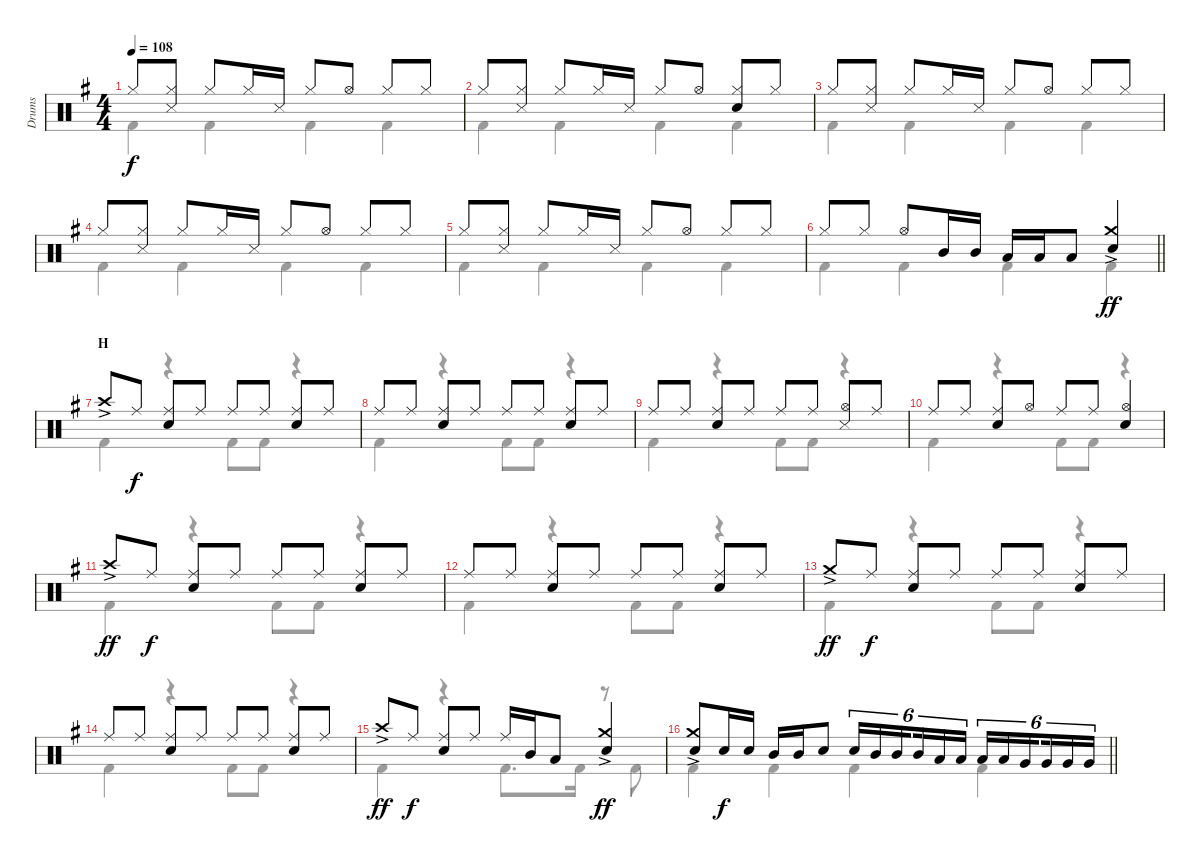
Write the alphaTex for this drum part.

\track ("Drums" "Drums") {instrument percussion}
\staff {score}
\articulation defaults
\voice
\ts (4 4)
\tempo 108
\clef neutral
\ks g "Hi-Hat (closed)".8{dy f}
("Hi-Hat (closed)" "Snare (side stick) 3").8 "Hi-Hat (closed)".8 "Hi-Hat (closed)".16 "Snare (side stick) 3".16 "Hi-Hat (closed)".8 "Hi-Hat (open)".8 "Hi-Hat (closed)".8 "Hi-Hat (closed)".8 |
"Hi-Hat (closed)".8 ("Hi-Hat (closed)" "Snare (side stick) 3").8 "Hi-Hat (closed)".8 "Hi-Hat (closed)".16 "Snare (side stick) 3".16 "Hi-Hat (closed)".8 "Hi-Hat (open)".8 ("Hi-Hat (closed)" "Snare (hit) 2").8 "Hi-Hat (closed)".8 |
"Hi-Hat (closed)".8 ("Hi-Hat (closed)" "Snare (side stick) 3").8 "Hi-Hat (closed)".8 "Hi-Hat (closed)".16 "Snare (side stick) 3".16 "Hi-Hat (closed)".8 "Hi-Hat (open)".8 "Hi-Hat (closed)".8 "Hi-Hat (closed)".8 |
"Hi-Hat (closed)".8 ("Hi-Hat (closed)" "Snare (side stick) 3").8 "Hi-Hat (closed)".8 "Hi-Hat (closed)".16 "Snare (side stick) 3".16 "Hi-Hat (closed)".8 "Hi-Hat (open)".8 "Hi-Hat (closed)".8 "Hi-Hat (closed)".8 |
"Hi-Hat (closed)".8 ("Hi-Hat (closed)" "Snare (side stick) 3").8 "Hi-Hat (closed)".8 "Hi-Hat (closed)".16 "Snare (side stick) 3".16 "Hi-Hat (closed)".8 "Hi-Hat (open)".8 "Hi-Hat (closed)".8 "Hi-Hat (closed)".8 |
\barLineRight lightlight "Hi-Hat (closed)".8 "Hi-Hat (closed)".8 "Hi-Hat (open)".8 "Mid Tom (hit)".16 "Mid Tom (hit)".16 "Low Tom (hit)".16 "Low Tom (hit)".16 "Low Tom (hit)".8
("Crash medium (hit)"{ac} "Snare (hit) 2").4{dy ff} |
\section ("" "H")
"Crash high (hit)"{ac}.8 "Ride (middle)".8{dy f} ("Ride (middle)" "Snare (hit) 2").8 "Ride (middle)".8 "Ride (middle)".8 "Ride (middle)".8 ("Ride (middle)" "Snare (hit) 2").8 "Ride (middle)".8 |
"Ride (middle)".8 "Ride (middle)".8 ("Ride (middle)" "Snare (hit) 2").8 "Ride (middle)".8 "Ride (middle)".8 "Ride (middle)".8 ("Ride (middle)" "Snare (hit) 2").8 "Ride (middle)".8 |
"Ride (middle)".8 "Ride (middle)".8 ("Ride (middle)" "Snare (hit) 2").8 "Ride (middle)".8 "Ride (middle)".8 "Ride (middle)".8 ("Hi-Hat (open)" "Snare (side stick) 3").8 "Ride (middle)".8 |
"Ride (middle)".8 "Ride (middle)".8 ("Ride (middle)" "Snare (hit) 2").8 "Hi-Hat (open)".8 "Ride (middle)".8 "Ride (middle)".8 ("Hi-Hat (open)" "Snare (hit) 2").4 |
"Crash high (hit)"{ac}.8{dy ff} "Ride (middle)".8{dy f} ("Ride (middle)" "Snare (hit) 2").8 "Ride (middle)".8 "Ride (middle)".8 "Ride (middle)".8 ("Ride (middle)" "Snare (hit) 2").8 "Ride (middle)".8 |
"Ride (middle)".8 "Ride (middle)".8 ("Ride (middle)" "Snare (hit) 2").8 "Ride (middle)".8 "Ride (middle)".8 "Ride (middle)".8 ("Ride (middle)" "Snare (hit) 2").8 "Ride (middle)".8 |
"Crash medium (hit)"{ac}.8{dy ff} "Ride (middle)".8{dy f} ("Ride (middle)" "Snare (hit) 2").8 "Ride (middle)".8 "Ride (middle)".8 "Ride (middle)".8 ("Ride (middle)" "Snare (hit) 2").8 "Ride (middle)".8 |
"Ride (middle)".8 "Ride (middle)".8 ("Ride (middle)" "Snare (hit) 2").8 "Ride (middle)".8 "Ride (middle)".8 "Ride (middle)".8 ("Ride (middle)" "Snare (hit) 2").8 "Ride (middle)".8 |
"Crash high (hit)"{ac}.8{dy ff} "Ride (middle)".8{dy f} ("Ride (middle)" "Snare (hit) 2").8 "Ride (middle)".8 "Ride (middle)".16 "Mid Tom (hit)".16 "Low Tom (hit)".8 ("Crash medium (hit)"{ac} "Snare (hit) 2").4{dy ff} |
\barLineRight lightlight
("Crash medium (hit)"{ac} "Snare (hit) 2").8 "Snare (hit) 2".16{dy f} "Snare (hit) 2".16 "Mid Tom (hit)".16 "Mid Tom (hit)".16 "Snare (hit) 2".8 "Snare (hit) 2".16{tu (6 4)} "Mid Tom (hit)".16{tu (6 4)} "Mid Tom (hit)".16{tu (6 4) beam splitsecondary} "Mid Tom (hit)".16{tu (6 4)} "Low Tom (hit)".16{tu (6 4)} "Low Tom (hit)".16{tu (6 4)} "Low Tom (hit)".16{tu (6 4)} "Low Tom (hit)".16{tu (6 4)} "Very Low Tom (hit)".16{tu (6 4) beam splitsecondary} "Very Low Tom (hit)".16{tu (6 4)} "Very Low Tom (hit)".16{tu (6 4)} "Very Low Tom (hit)".16{tu (6 4)}
\voice
\clef neutral
\ottava regular
\simile none
\ks g "Kick (hit) 2".4{dy f} "Kick (hit) 2".4 "Kick (hit) 2".4 "Kick (hit) 2".4
|
"Kick (hit) 2".4 "Kick (hit) 2".4 "Kick (hit) 2".4 "Kick (hit) 2".4 |
"Kick (hit) 2".4 "Kick (hit) 2".4 "Kick (hit) 2".4 "Kick (hit) 2".4 |
"Kick (hit) 2".4 "Kick (hit) 2".4 "Kick (hit) 2".4 "Kick (hit) 2".4 |
"Kick (hit) 2".4 "Kick (hit) 2".4 "Kick (hit) 2".4 "Kick (hit) 2".4 |
\barLineRight lightlight "Kick (hit) 2".4 "Kick (hit) 2".4 "Kick (hit) 2".4 "Kick (hit) 2".4
|
"Kick (hit) 2".4 r.4 "Kick (hit) 2".8 "Kick (hit) 2".8 r.4 |
"Kick (hit) 2".4 r.4 "Kick (hit) 2".8 "Kick (hit) 2".8 r.4 |
"Kick (hit) 2".4 r.4 "Kick (hit) 2".8 "Kick (hit) 2".8 r.4 |
"Kick (hit) 2".4 r.4 "Kick (hit) 2".8 "Kick (hit) 2".8 r.4 |
"Kick (hit) 2".4 r.4 "Kick (hit) 2".8 "Kick (hit) 2".8 r.4 |
"Kick (hit) 2".4 r.4 "Kick (hit) 2".8 "Kick (hit) 2".8 r.4 |
"Kick (hit) 2".4 r.4 "Kick (hit) 2".8 "Kick (hit) 2".8 r.4 |
"Kick (hit) 2".4 r.4 "Kick (hit) 2".8 "Kick (hit) 2".8 r.4 |
"Kick (hit) 2".4 r.4 "Kick (hit) 2".8{d} "Kick (hit) 2".16 r.8 "Kick (hit) 2".8 |
\barLineRight lightlight "Kick (hit) 2".4 "Kick (hit) 2".4 "Kick (hit) 2".4 "Kick (hit) 2".4
